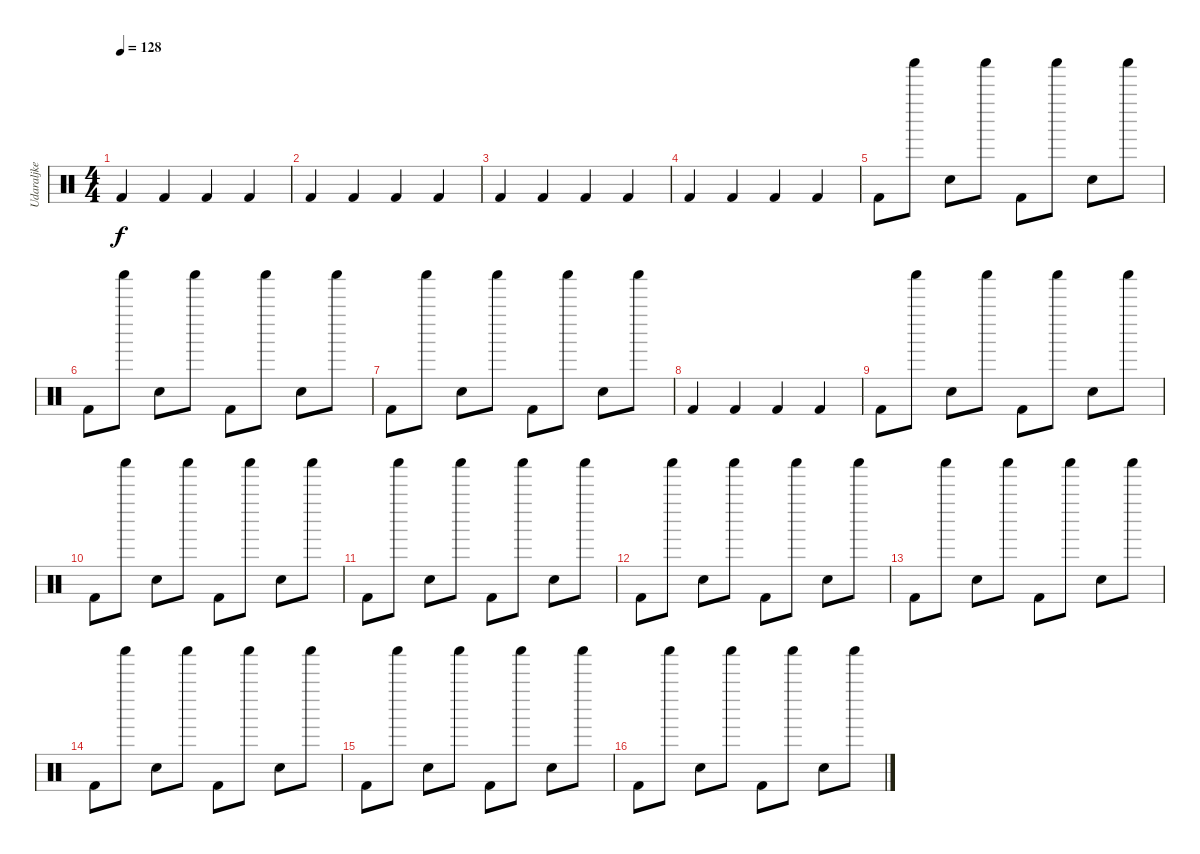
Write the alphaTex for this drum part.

\track ("Udaraljke" "Udaraljke") {instrument percussion}
\staff {score}
\articulation defaults
\ts (4 4)
\tempo 128
\clef neutral
\ks c "Kick (hit) 2".4{dy f} "Kick (hit) 2".4 "Kick (hit) 2".4 "Kick (hit) 2".4
|
"Kick (hit) 2".4 "Kick (hit) 2".4 "Kick (hit) 2".4 "Kick (hit) 2".4 |
"Kick (hit) 2".4 "Kick (hit) 2".4 "Kick (hit) 2".4 "Kick (hit) 2".4 |
"Kick (hit) 2".4 "Kick (hit) 2".4 "Kick (hit) 2".4 "Kick (hit) 2".4 |
"Kick (hit) 2".8 "Shaker (hit)".8 "Hand Clap (hit)".8 "Shaker (hit)".8 "Kick (hit) 2".8 "Shaker (hit)".8 "Hand Clap (hit)".8 "Shaker (hit)".8 |
"Kick (hit) 2".8 "Shaker (hit)".8 "Hand Clap (hit)".8 "Shaker (hit)".8 "Kick (hit) 2".8 "Shaker (hit)".8 "Hand Clap (hit)".8 "Shaker (hit)".8 |
"Kick (hit) 2".8 "Shaker (hit)".8 "Hand Clap (hit)".8 "Shaker (hit)".8 "Kick (hit) 2".8 "Shaker (hit)".8 "Hand Clap (hit)".8 "Shaker (hit)".8 |
"Kick (hit) 2".4 "Kick (hit) 2".4 "Kick (hit) 2".4 "Kick (hit) 2".4 |
"Kick (hit) 2".8 "Shaker (hit)".8 "Hand Clap (hit)".8 "Shaker (hit)".8 "Kick (hit) 2".8 "Shaker (hit)".8 "Hand Clap (hit)".8 "Shaker (hit)".8 |
"Kick (hit) 2".8 "Shaker (hit)".8 "Hand Clap (hit)".8 "Shaker (hit)".8 "Kick (hit) 2".8 "Shaker (hit)".8 "Hand Clap (hit)".8 "Shaker (hit)".8 |
"Kick (hit) 2".8 "Shaker (hit)".8 "Hand Clap (hit)".8 "Shaker (hit)".8 "Kick (hit) 2".8 "Shaker (hit)".8 "Hand Clap (hit)".8 "Shaker (hit)".8 |
"Kick (hit) 2".8 "Shaker (hit)".8 "Hand Clap (hit)".8 "Shaker (hit)".8 "Kick (hit) 2".8 "Shaker (hit)".8 "Hand Clap (hit)".8 "Shaker (hit)".8 |
"Kick (hit) 2".8 "Shaker (hit)".8 "Hand Clap (hit)".8 "Shaker (hit)".8 "Kick (hit) 2".8 "Shaker (hit)".8 "Hand Clap (hit)".8 "Shaker (hit)".8 |
"Kick (hit) 2".8 "Shaker (hit)".8 "Hand Clap (hit)".8 "Shaker (hit)".8 "Kick (hit) 2".8 "Shaker (hit)".8 "Hand Clap (hit)".8 "Shaker (hit)".8 |
"Kick (hit) 2".8 "Shaker (hit)".8 "Hand Clap (hit)".8 "Shaker (hit)".8 "Kick (hit) 2".8 "Shaker (hit)".8 "Hand Clap (hit)".8 "Shaker (hit)".8 |
"Kick (hit) 2".8 "Shaker (hit)".8 "Hand Clap (hit)".8 "Shaker (hit)".8 "Kick (hit) 2".8 "Shaker (hit)".8 "Hand Clap (hit)".8 "Shaker (hit)".8
